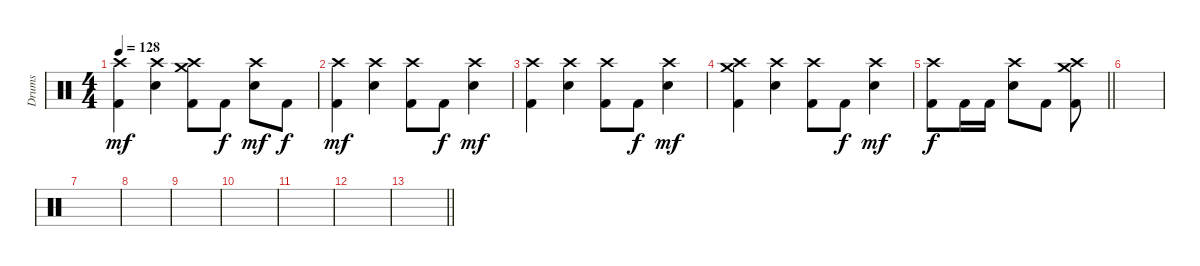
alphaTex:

\track ("Drums" "Drums") {instrument percussion}
\staff {score}
\articulation defaults
\ts (4 4)
\tempo 128
\clef neutral
\ks c
("Crash high (hit)" "Kick (hit) 2").4{dy mf} ("Crash high (hit)" "Electric Snare (hit)").4 ("Crash medium (hit)" "Crash high (hit)" "Kick (hit) 2").8 "Kick (hit) 2".8{dy f} ("Crash high (hit)" "Electric Snare (hit)").8{dy mf} "Kick (hit) 2".8{dy f} |
("Crash high (hit)" "Kick (hit) 2").4{dy mf} ("Crash high (hit)" "Electric Snare (hit)").4 ("Crash high (hit)" "Kick (hit) 2").8 "Kick (hit) 2".8{dy f} ("Crash high (hit)" "Electric Snare (hit)").4{dy mf} |
("Crash high (hit)" "Kick (hit) 2").4 ("Crash high (hit)" "Electric Snare (hit)").4 ("Crash high (hit)" "Kick (hit) 2").8 "Kick (hit) 2".8{dy f} ("Crash high (hit)" "Electric Snare (hit)").4{dy mf} |
("Crash medium (hit)" "Crash high (hit)" "Kick (hit) 2").4 ("Crash high (hit)" "Electric Snare (hit)").4 ("Crash high (hit)" "Kick (hit) 2").8 "Kick (hit) 2".8{dy f} ("Crash high (hit)" "Electric Snare (hit)").4{dy mf} |
\barLineRight lightlight
("Crash high (hit)" "Kick (hit) 2").8{dy f} "Kick (hit) 2".16 "Kick (hit) 2".16 ("Crash high (hit)" "Electric Snare (hit)").8 "Kick (hit) 2".8 ("Crash medium (hit)" "Crash high (hit)" "Kick (hit) 2").8 |
|
|
|
|
|
|
|
\barLineRight lightlight
